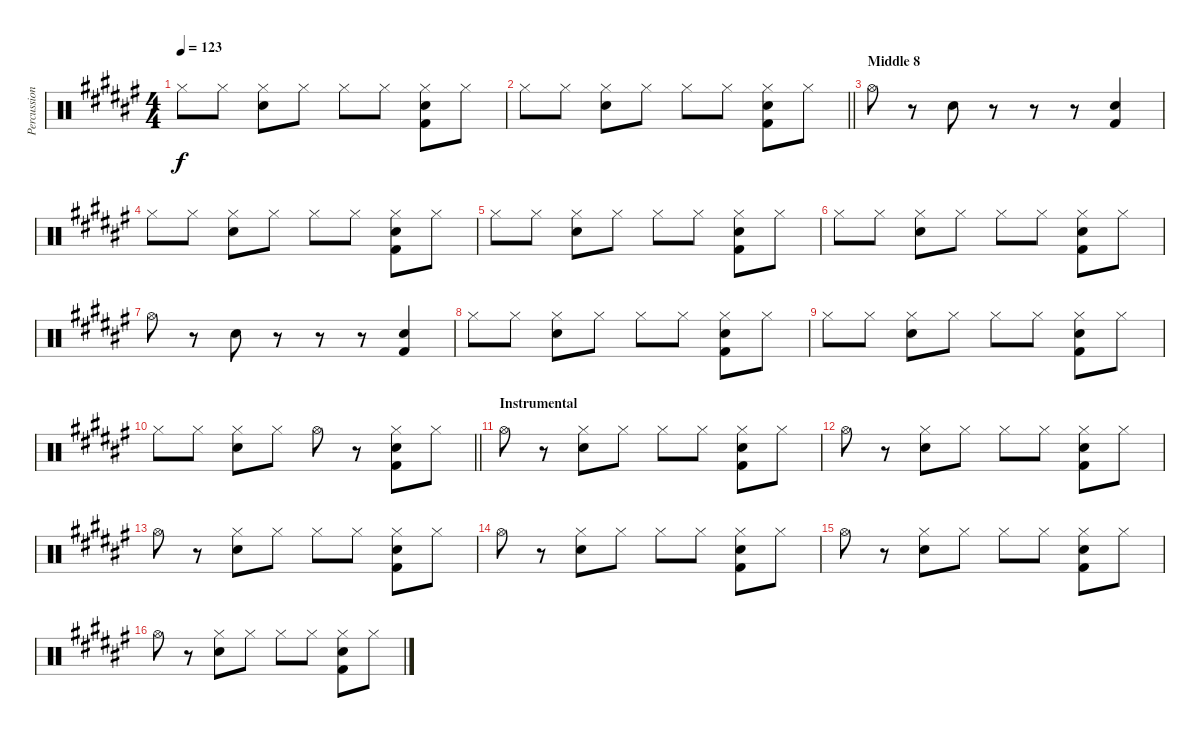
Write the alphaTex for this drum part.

\track ("Percussion" "Percussion") {instrument percussion}
\staff {score}
\articulation defaults
\ts (4 4)
\tempo 123
\clef neutral
\ks f# "Hi-Hat (closed)".8{dy f} "Hi-Hat (closed)".8
("Hi-Hat (closed)" "Snare (hit) 2").8 "Hi-Hat (closed)".8 "Hi-Hat (closed)".8 "Hi-Hat (closed)".8 ("Hi-Hat (closed)" "Snare (hit) 2" "Kick (hit) 2").8 "Hi-Hat (closed)".8 |
\barLineRight lightlight "Hi-Hat (closed)".8 "Hi-Hat (closed)".8
("Hi-Hat (closed)" "Snare (hit) 2").8 "Hi-Hat (closed)".8 "Hi-Hat (closed)".8 "Hi-Hat (closed)".8 ("Hi-Hat (closed)" "Snare (hit) 2" "Kick (hit) 2").8 "Hi-Hat (closed)".8 |
\section ("" "Middle 8")
"Hi-Hat (open)".8 r.8 "Snare (hit) 2".8 r.8 r.8 r.8 ("Snare (hit) 2" "Kick (hit) 2").4 |
"Hi-Hat (closed)".8 "Hi-Hat (closed)".8 ("Hi-Hat (closed)" "Snare (hit) 2").8 "Hi-Hat (closed)".8 "Hi-Hat (closed)".8 "Hi-Hat (closed)".8 ("Hi-Hat (closed)" "Snare (hit) 2" "Kick (hit) 2").8 "Hi-Hat (closed)".8 |
"Hi-Hat (closed)".8 "Hi-Hat (closed)".8 ("Hi-Hat (closed)" "Snare (hit) 2").8 "Hi-Hat (closed)".8 "Hi-Hat (closed)".8 "Hi-Hat (closed)".8 ("Hi-Hat (closed)" "Snare (hit) 2" "Kick (hit) 2").8 "Hi-Hat (closed)".8 |
"Hi-Hat (closed)".8 "Hi-Hat (closed)".8 ("Hi-Hat (closed)" "Snare (hit) 2").8 "Hi-Hat (closed)".8 "Hi-Hat (closed)".8 "Hi-Hat (closed)".8 ("Hi-Hat (closed)" "Snare (hit) 2" "Kick (hit) 2").8 "Hi-Hat (closed)".8 |
"Hi-Hat (open)".8 r.8 "Snare (hit) 2".8 r.8 r.8 r.8 ("Snare (hit) 2" "Kick (hit) 2").4 |
"Hi-Hat (closed)".8 "Hi-Hat (closed)".8 ("Hi-Hat (closed)" "Snare (hit) 2").8 "Hi-Hat (closed)".8 "Hi-Hat (closed)".8 "Hi-Hat (closed)".8 ("Hi-Hat (closed)" "Snare (hit) 2" "Kick (hit) 2").8 "Hi-Hat (closed)".8 |
"Hi-Hat (closed)".8 "Hi-Hat (closed)".8 ("Hi-Hat (closed)" "Snare (hit) 2").8 "Hi-Hat (closed)".8 "Hi-Hat (closed)".8 "Hi-Hat (closed)".8 ("Hi-Hat (closed)" "Snare (hit) 2" "Kick (hit) 2").8 "Hi-Hat (closed)".8 |
\barLineRight lightlight "Hi-Hat (closed)".8 "Hi-Hat (closed)".8
("Hi-Hat (closed)" "Snare (hit) 2").8 "Hi-Hat (closed)".8 "Hi-Hat (open)".8 r.8 ("Hi-Hat (closed)" "Snare (hit) 2" "Kick (hit) 2").8 "Hi-Hat (closed)".8 |
\section ("" "Instrumental")
"Hi-Hat (open)".8 r.8 ("Hi-Hat (closed)" "Snare (hit) 2").8 "Hi-Hat (closed)".8 "Hi-Hat (closed)".8 "Hi-Hat (closed)".8 ("Hi-Hat (closed)" "Snare (hit) 2" "Kick (hit) 2").8 "Hi-Hat (closed)".8 |
"Hi-Hat (open)".8 r.8 ("Hi-Hat (closed)" "Snare (hit) 2").8 "Hi-Hat (closed)".8 "Hi-Hat (closed)".8 "Hi-Hat (closed)".8 ("Hi-Hat (closed)" "Snare (hit) 2" "Kick (hit) 2").8 "Hi-Hat (closed)".8 |
"Hi-Hat (open)".8 r.8 ("Hi-Hat (closed)" "Snare (hit) 2").8 "Hi-Hat (closed)".8 "Hi-Hat (closed)".8 "Hi-Hat (closed)".8 ("Hi-Hat (closed)" "Snare (hit) 2" "Kick (hit) 2").8 "Hi-Hat (closed)".8 |
"Hi-Hat (open)".8 r.8 ("Hi-Hat (closed)" "Snare (hit) 2").8 "Hi-Hat (closed)".8 "Hi-Hat (closed)".8 "Hi-Hat (closed)".8 ("Hi-Hat (closed)" "Snare (hit) 2" "Kick (hit) 2").8 "Hi-Hat (closed)".8 |
"Hi-Hat (open)".8 r.8 ("Hi-Hat (closed)" "Snare (hit) 2").8 "Hi-Hat (closed)".8 "Hi-Hat (closed)".8 "Hi-Hat (closed)".8 ("Hi-Hat (closed)" "Snare (hit) 2" "Kick (hit) 2").8 "Hi-Hat (closed)".8 |
"Hi-Hat (open)".8 r.8 ("Hi-Hat (closed)" "Snare (hit) 2").8 "Hi-Hat (closed)".8 "Hi-Hat (closed)".8 "Hi-Hat (closed)".8 ("Hi-Hat (closed)" "Snare (hit) 2" "Kick (hit) 2").8 "Hi-Hat (closed)".8
